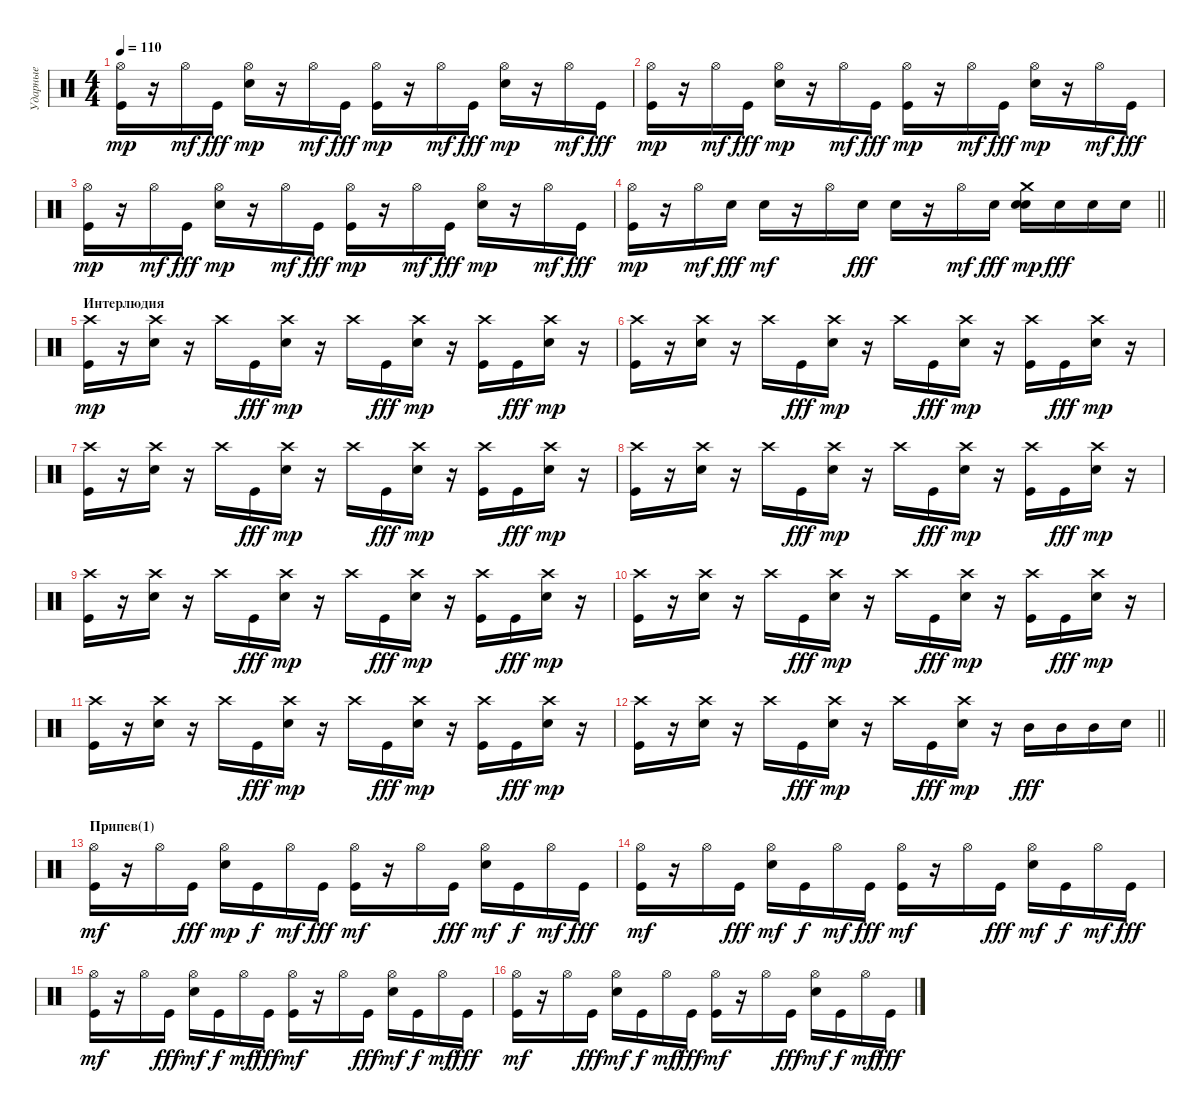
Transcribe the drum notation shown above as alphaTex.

\track ("Ударные" "Ударные") {instrument percussion}
\staff {score}
\articulation defaults
\ts (4 4)
\tempo 110
\clef neutral
\ks c
("Kick (hit)" "Hi-Hat (open)").16{dy mp} r.16 "Hi-Hat (open)".16{dy mf} "Kick (hit)".16{dy fff} ("Electric Snare (hit)" "Hi-Hat (open)").16{dy mp} r.16 "Hi-Hat (open)".16{dy mf} "Kick (hit)".16{dy fff} ("Kick (hit)" "Hi-Hat (open)").16{dy mp} r.16 "Hi-Hat (open)".16{dy mf} "Kick (hit)".16{dy fff} ("Electric Snare (hit)" "Hi-Hat (open)").16{dy mp} r.16 "Hi-Hat (open)".16{dy mf} "Kick (hit)".16{dy fff} |
("Kick (hit)" "Hi-Hat (open)").16{dy mp} r.16 "Hi-Hat (open)".16{dy mf} "Kick (hit)".16{dy fff} ("Electric Snare (hit)" "Hi-Hat (open)").16{dy mp} r.16 "Hi-Hat (open)".16{dy mf} "Kick (hit)".16{dy fff} ("Kick (hit)" "Hi-Hat (open)").16{dy mp} r.16 "Hi-Hat (open)".16{dy mf} "Kick (hit)".16{dy fff} ("Electric Snare (hit)" "Hi-Hat (open)").16{dy mp} r.16 "Hi-Hat (open)".16{dy mf} "Kick (hit)".16{dy fff} |
("Kick (hit)" "Hi-Hat (open)").16{dy mp} r.16 "Hi-Hat (open)".16{dy mf} "Kick (hit)".16{dy fff} ("Electric Snare (hit)" "Hi-Hat (open)").16{dy mp} r.16 "Hi-Hat (open)".16{dy mf} "Kick (hit)".16{dy fff} ("Kick (hit)" "Hi-Hat (open)").16{dy mp} r.16 "Hi-Hat (open)".16{dy mf} "Kick (hit)".16{dy fff} ("Electric Snare (hit)" "Hi-Hat (open)").16{dy mp} r.16 "Hi-Hat (open)".16{dy mf} "Kick (hit)".16{dy fff} |
\barLineRight lightlight
("Kick (hit)" "Hi-Hat (open)").16{dy mp} r.16 "Hi-Hat (open)".16{dy mf} "Electric Snare (hit)".16{dy fff} "Electric Snare (hit)".16{dy mf} r.16 "Hi-Hat (open)".16 "Electric Snare (hit)".16{dy fff} "Electric Snare (hit)".16 r.16 "Hi-Hat (open)".16{dy mf} "Electric Snare (hit)".16{dy fff} ("Electric Snare (hit)" "Electric Snare (hit)" "Crash medium (hit)").16{dy mp} "Electric Snare (hit)".16{dy fff} "Electric Snare (hit)".16 "Electric Snare (hit)".16 |
\section ("" "Интерлюдия")
("Kick (hit)" "Crash high (hit)").16{dy mp} r.16 ("Electric Snare (hit)" "Crash high (hit)").16 r.16 "Crash high (hit)".16 "Kick (hit)".16{dy fff} ("Electric Snare (hit)" "Crash high (hit)").16{dy mp} r.16 "Crash high (hit)".16 "Kick (hit)".16{dy fff} ("Electric Snare (hit)" "Crash high (hit)").16{dy mp} r.16 ("Kick (hit)" "Crash high (hit)").16 "Kick (hit)".16{dy fff} ("Electric Snare (hit)" "Crash high (hit)").16{dy mp} r.16 |
("Kick (hit)" "Crash high (hit)").16 r.16 ("Electric Snare (hit)" "Crash high (hit)").16 r.16 "Crash high (hit)".16 "Kick (hit)".16{dy fff} ("Electric Snare (hit)" "Crash high (hit)").16{dy mp} r.16 "Crash high (hit)".16 "Kick (hit)".16{dy fff} ("Electric Snare (hit)" "Crash high (hit)").16{dy mp} r.16 ("Kick (hit)" "Crash high (hit)").16 "Kick (hit)".16{dy fff} ("Electric Snare (hit)" "Crash high (hit)").16{dy mp} r.16 |
("Kick (hit)" "Crash high (hit)").16 r.16 ("Electric Snare (hit)" "Crash high (hit)").16 r.16 "Crash high (hit)".16 "Kick (hit)".16{dy fff} ("Electric Snare (hit)" "Crash high (hit)").16{dy mp} r.16 "Crash high (hit)".16 "Kick (hit)".16{dy fff} ("Electric Snare (hit)" "Crash high (hit)").16{dy mp} r.16 ("Kick (hit)" "Crash high (hit)").16 "Kick (hit)".16{dy fff} ("Electric Snare (hit)" "Crash high (hit)").16{dy mp} r.16 |
("Kick (hit)" "Crash high (hit)").16 r.16 ("Electric Snare (hit)" "Crash high (hit)").16 r.16 "Crash high (hit)".16 "Kick (hit)".16{dy fff} ("Electric Snare (hit)" "Crash high (hit)").16{dy mp} r.16 "Crash high (hit)".16 "Kick (hit)".16{dy fff} ("Electric Snare (hit)" "Crash high (hit)").16{dy mp} r.16 ("Kick (hit)" "Crash high (hit)").16 "Kick (hit)".16{dy fff} ("Electric Snare (hit)" "Crash high (hit)").16{dy mp} r.16 |
("Kick (hit)" "Crash high (hit)").16 r.16 ("Electric Snare (hit)" "Crash high (hit)").16 r.16 "Crash high (hit)".16 "Kick (hit)".16{dy fff} ("Electric Snare (hit)" "Crash high (hit)").16{dy mp} r.16 "Crash high (hit)".16 "Kick (hit)".16{dy fff} ("Electric Snare (hit)" "Crash high (hit)").16{dy mp} r.16 ("Kick (hit)" "Crash high (hit)").16 "Kick (hit)".16{dy fff} ("Electric Snare (hit)" "Crash high (hit)").16{dy mp} r.16 |
("Kick (hit)" "Crash high (hit)").16 r.16 ("Electric Snare (hit)" "Crash high (hit)").16 r.16 "Crash high (hit)".16 "Kick (hit)".16{dy fff} ("Electric Snare (hit)" "Crash high (hit)").16{dy mp} r.16 "Crash high (hit)".16 "Kick (hit)".16{dy fff} ("Electric Snare (hit)" "Crash high (hit)").16{dy mp} r.16 ("Kick (hit)" "Crash high (hit)").16 "Kick (hit)".16{dy fff} ("Electric Snare (hit)" "Crash high (hit)").16{dy mp} r.16 |
("Kick (hit)" "Crash high (hit)").16 r.16 ("Electric Snare (hit)" "Crash high (hit)").16 r.16 "Crash high (hit)".16 "Kick (hit)".16{dy fff} ("Electric Snare (hit)" "Crash high (hit)").16{dy mp} r.16 "Crash high (hit)".16 "Kick (hit)".16{dy fff} ("Electric Snare (hit)" "Crash high (hit)").16{dy mp} r.16 ("Kick (hit)" "Crash high (hit)").16 "Kick (hit)".16{dy fff} ("Electric Snare (hit)" "Crash high (hit)").16{dy mp} r.16 |
\barLineRight lightlight
("Kick (hit)" "Crash high (hit)").16 r.16 ("Electric Snare (hit)" "Crash high (hit)").16 r.16 "Crash high (hit)".16 "Kick (hit)".16{dy fff} ("Electric Snare (hit)" "Crash high (hit)").16{dy mp} r.16 "Crash high (hit)".16 "Kick (hit)".16{dy fff} ("Electric Snare (hit)" "Crash high (hit)").16{dy mp} r.16 "Mid Tom (hit)".16{dy fff} "Mid Tom (hit)".16 "Mid Tom (hit)".16 "Electric Snare (hit)".16 |
\section ("" "Припев(1)")
("Kick (hit)" "Hi-Hat (open)").16{dy mf} r.16 "Hi-Hat (open)".16 "Kick (hit)".16{dy fff} ("Electric Snare (hit)" "Hi-Hat (open)").16{dy mp} "Kick (hit)".16{dy f} "Hi-Hat (open)".16{dy mf} "Kick (hit)".16{dy fff} ("Kick (hit)" "Hi-Hat (open)").16{dy mf} r.16 "Hi-Hat (open)".16 "Kick (hit)".16{dy fff} ("Electric Snare (hit)" "Hi-Hat (open)").16{dy mf} "Kick (hit)".16{dy f} "Hi-Hat (open)".16{dy mf} "Kick (hit)".16{dy fff} |
("Kick (hit)" "Hi-Hat (open)").16{dy mf} r.16 "Hi-Hat (open)".16 "Kick (hit)".16{dy fff} ("Electric Snare (hit)" "Hi-Hat (open)").16{dy mf} "Kick (hit)".16{dy f} "Hi-Hat (open)".16{dy mf} "Kick (hit)".16{dy fff} ("Kick (hit)" "Hi-Hat (open)").16{dy mf} r.16 "Hi-Hat (open)".16 "Kick (hit)".16{dy fff} ("Electric Snare (hit)" "Hi-Hat (open)").16{dy mf} "Kick (hit)".16{dy f} "Hi-Hat (open)".16{dy mf} "Kick (hit)".16{dy fff} |
("Kick (hit)" "Hi-Hat (open)").16{dy mf} r.16 "Hi-Hat (open)".16 "Kick (hit)".16{dy fff} ("Electric Snare (hit)" "Hi-Hat (open)").16{dy mf} "Kick (hit)".16{dy f} "Hi-Hat (open)".16{dy mf} "Kick (hit)".16{dy fff} ("Kick (hit)" "Hi-Hat (open)").16{dy mf} r.16 "Hi-Hat (open)".16 "Kick (hit)".16{dy fff} ("Electric Snare (hit)" "Hi-Hat (open)").16{dy mf} "Kick (hit)".16{dy f} "Hi-Hat (open)".16{dy mf} "Kick (hit)".16{dy fff} |
("Kick (hit)" "Hi-Hat (open)").16{dy mf} r.16 "Hi-Hat (open)".16 "Kick (hit)".16{dy fff} ("Electric Snare (hit)" "Hi-Hat (open)").16{dy mf} "Kick (hit)".16{dy f} "Hi-Hat (open)".16{dy mf} "Kick (hit)".16{dy fff} ("Kick (hit)" "Hi-Hat (open)").16{dy mf} r.16 "Hi-Hat (open)".16 "Kick (hit)".16{dy fff} ("Electric Snare (hit)" "Hi-Hat (open)").16{dy mf} "Kick (hit)".16{dy f} "Hi-Hat (open)".16{dy mf} "Kick (hit)".16{dy fff}
